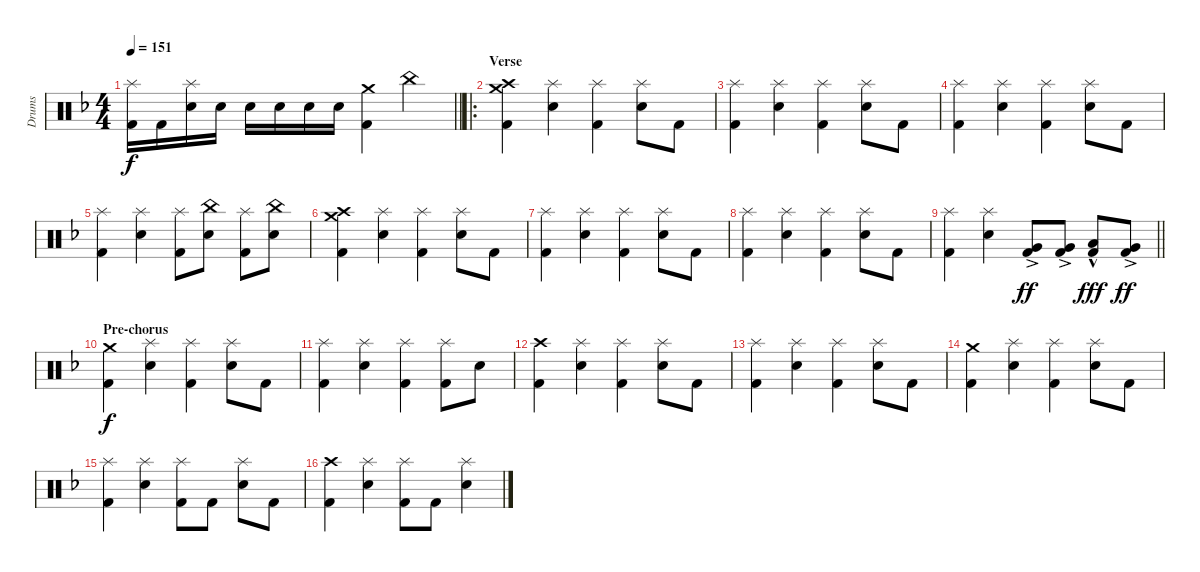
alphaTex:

\track ("Drums" "Drums") {instrument percussion}
\staff {score}
\articulation defaults
\ts (4 4)
\tempo 151
\clef neutral
\barLineRight lightlight
\ks dminor
("Splash (hit)" "Kick (hit) 2").16{dy f} "Kick (hit) 2".16 ("Splash (hit)" "Snare (hit) 2").16 "Snare (hit) 2".16 "Snare (hit) 2".16 "Snare (hit) 2".16 "Snare (hit) 2".16 "Snare (hit) 2".16 ("Crash medium (hit)" "Kick (hit) 2").4 "China (hit)".4 |
\ro
\section ("" "Verse")
("Crash high (hit)" "Crash medium (hit)" "Kick (hit) 2").4 ("Splash (hit)" "Snare (hit) 2").4 ("Splash (hit)" "Kick (hit) 2").4 ("Splash (hit)" "Snare (hit) 2").8 "Kick (hit) 2".8 |
("Splash (hit)" "Kick (hit) 2").4 ("Splash (hit)" "Snare (hit) 2").4 ("Splash (hit)" "Kick (hit) 2").4 ("Splash (hit)" "Snare (hit) 2").8 "Kick (hit) 2".8 |
("Splash (hit)" "Kick (hit) 2").4 ("Splash (hit)" "Snare (hit) 2").4 ("Splash (hit)" "Kick (hit) 2").4 ("Splash (hit)" "Snare (hit) 2").8 "Kick (hit) 2".8 |
("Splash (hit)" "Kick (hit) 2").4 ("Splash (hit)" "Snare (hit) 2").4 ("Splash (hit)" "Kick (hit) 2").8 ("China (hit)" "Snare (hit) 2").8 ("Splash (hit)" "Kick (hit) 2").8 ("China (hit)" "Snare (hit) 2").8 |
("Crash high (hit)" "Crash medium (hit)" "Kick (hit) 2").4 ("Splash (hit)" "Snare (hit) 2").4 ("Splash (hit)" "Kick (hit) 2").4 ("Splash (hit)" "Snare (hit) 2").8 "Kick (hit) 2".8 |
("Splash (hit)" "Kick (hit) 2").4 ("Splash (hit)" "Snare (hit) 2").4 ("Splash (hit)" "Kick (hit) 2").4 ("Splash (hit)" "Snare (hit) 2").8 "Kick (hit) 2".8 |
("Splash (hit)" "Kick (hit) 2").4 ("Splash (hit)" "Snare (hit) 2").4 ("Splash (hit)" "Kick (hit) 2").4 ("Splash (hit)" "Snare (hit) 2").8 "Kick (hit) 2".8 |
\barLineRight lightlight
("Splash (hit)" "Kick (hit) 2").4 ("Splash (hit)" "Snare (hit) 2").4 ("Very Low Tom (hit)"{ac} "Kick (hit) 2").8{dy ff} ("Very Low Tom (hit)"{ac} "Kick (hit) 2").8 ("Low Tom (hit)"{hac} "Kick (hit) 2").8{dy fff} ("Very Low Tom (hit)"{ac} "Kick (hit) 2").8{dy ff} |
\section ("" "Pre-chorus")
("Crash medium (hit)" "Kick (hit) 2").4{dy f} ("Splash (hit)" "Snare (hit) 2").4 ("Splash (hit)" "Kick (hit) 2").4 ("Splash (hit)" "Snare (hit) 2").8 "Kick (hit) 2".8 |
("Splash (hit)" "Kick (hit) 2").4 ("Splash (hit)" "Snare (hit) 2").4 ("Splash (hit)" "Kick (hit) 2").4 ("Splash (hit)" "Kick (hit) 2").8 "Snare (hit) 2".8 |
("Crash high (hit)" "Kick (hit) 2").4 ("Splash (hit)" "Snare (hit) 2").4 ("Splash (hit)" "Kick (hit) 2").4 ("Splash (hit)" "Snare (hit) 2").8 "Kick (hit) 2".8 |
("Splash (hit)" "Kick (hit) 2").4 ("Splash (hit)" "Snare (hit) 2").4 ("Splash (hit)" "Kick (hit) 2").4 ("Splash (hit)" "Snare (hit) 2").8 "Kick (hit) 2".8 |
("Crash medium (hit)" "Kick (hit) 2").4 ("Splash (hit)" "Snare (hit) 2").4 ("Splash (hit)" "Kick (hit) 2").4 ("Splash (hit)" "Snare (hit) 2").8 "Kick (hit) 2".8 |
("Splash (hit)" "Kick (hit) 2").4 ("Splash (hit)" "Snare (hit) 2").4 ("Splash (hit)" "Kick (hit) 2").8 "Kick (hit) 2".8 ("Splash (hit)" "Snare (hit) 2").8 "Kick (hit) 2".8 |
("Crash high (hit)" "Kick (hit) 2").4 ("Splash (hit)" "Snare (hit) 2").4 ("Splash (hit)" "Kick (hit) 2").8 "Kick (hit) 2".8 ("Splash (hit)" "Snare (hit) 2").4
